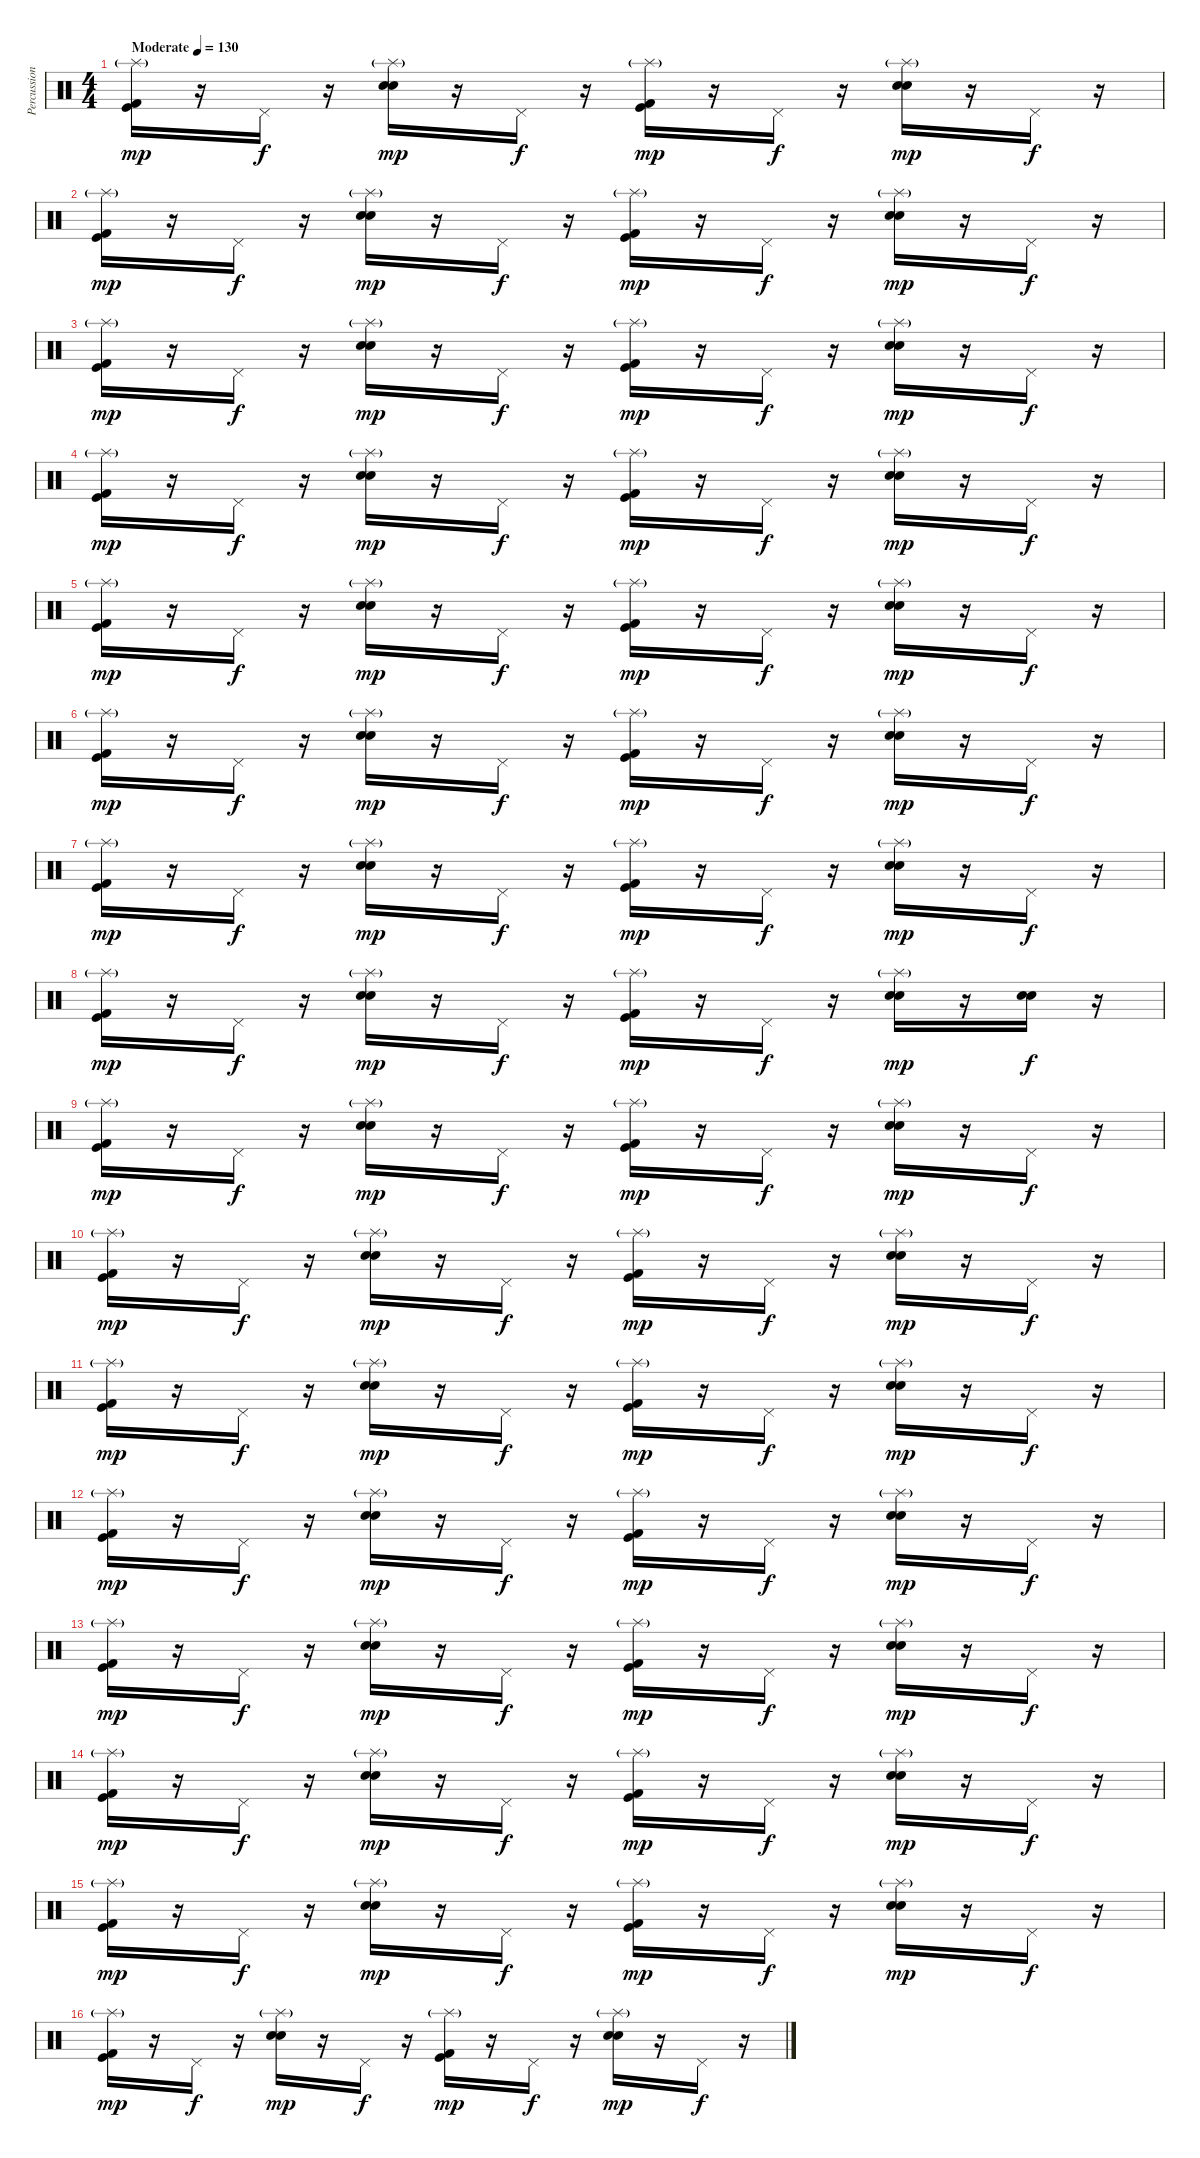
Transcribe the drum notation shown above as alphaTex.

\track ("Percussion" "Percussion") {instrument percussion}
\staff {score}
\articulation defaults
\ts (4 4)
\tempo (130 "Moderate")
\clef neutral
\ks c
("Splash (hit)"{g} "Kick (hit) 2" "Kick (hit)").16{dy mp} r.16 "Pedal Hi-Hat (hit)".16{dy f} r.16 ("Splash (hit)"{g} "Snare (hit) 2" "Electric Snare (hit)").16{dy mp} r.16 "Pedal Hi-Hat (hit)".16{dy f} r.16 ("Splash (hit)"{g} "Kick (hit) 2" "Kick (hit)").16{dy mp} r.16 "Pedal Hi-Hat (hit)".16{dy f} r.16 ("Splash (hit)"{g} "Snare (hit) 2" "Electric Snare (hit)").16{dy mp} r.16 "Pedal Hi-Hat (hit)".16{dy f} r.16 |
("Splash (hit)"{g} "Kick (hit) 2" "Kick (hit)").16{dy mp} r.16 "Pedal Hi-Hat (hit)".16{dy f} r.16 ("Splash (hit)"{g} "Snare (hit) 2" "Electric Snare (hit)").16{dy mp} r.16 "Pedal Hi-Hat (hit)".16{dy f} r.16 ("Splash (hit)"{g} "Kick (hit) 2" "Kick (hit)").16{dy mp} r.16 "Pedal Hi-Hat (hit)".16{dy f} r.16 ("Splash (hit)"{g} "Snare (hit) 2" "Electric Snare (hit)").16{dy mp} r.16 "Pedal Hi-Hat (hit)".16{dy f} r.16 |
("Splash (hit)"{g} "Kick (hit) 2" "Kick (hit)").16{dy mp} r.16 "Pedal Hi-Hat (hit)".16{dy f} r.16 ("Splash (hit)"{g} "Snare (hit) 2" "Electric Snare (hit)").16{dy mp} r.16 "Pedal Hi-Hat (hit)".16{dy f} r.16 ("Splash (hit)"{g} "Kick (hit) 2" "Kick (hit)").16{dy mp} r.16 "Pedal Hi-Hat (hit)".16{dy f} r.16 ("Splash (hit)"{g} "Snare (hit) 2" "Electric Snare (hit)").16{dy mp} r.16 "Pedal Hi-Hat (hit)".16{dy f} r.16 |
("Splash (hit)"{g} "Kick (hit) 2" "Kick (hit)").16{dy mp} r.16 "Pedal Hi-Hat (hit)".16{dy f} r.16 ("Splash (hit)"{g} "Snare (hit) 2" "Electric Snare (hit)").16{dy mp} r.16 "Pedal Hi-Hat (hit)".16{dy f} r.16 ("Splash (hit)"{g} "Kick (hit) 2" "Kick (hit)").16{dy mp} r.16 "Pedal Hi-Hat (hit)".16{dy f} r.16 ("Splash (hit)"{g} "Snare (hit) 2" "Electric Snare (hit)").16{dy mp} r.16 "Pedal Hi-Hat (hit)".16{dy f} r.16 |
("Splash (hit)"{g} "Kick (hit) 2" "Kick (hit)").16{dy mp} r.16 "Pedal Hi-Hat (hit)".16{dy f} r.16 ("Splash (hit)"{g} "Snare (hit) 2" "Electric Snare (hit)").16{dy mp} r.16 "Pedal Hi-Hat (hit)".16{dy f} r.16 ("Splash (hit)"{g} "Kick (hit) 2" "Kick (hit)").16{dy mp} r.16 "Pedal Hi-Hat (hit)".16{dy f} r.16 ("Splash (hit)"{g} "Snare (hit) 2" "Electric Snare (hit)").16{dy mp} r.16 "Pedal Hi-Hat (hit)".16{dy f} r.16 |
("Splash (hit)"{g} "Kick (hit) 2" "Kick (hit)").16{dy mp} r.16 "Pedal Hi-Hat (hit)".16{dy f} r.16 ("Splash (hit)"{g} "Snare (hit) 2" "Electric Snare (hit)").16{dy mp} r.16 "Pedal Hi-Hat (hit)".16{dy f} r.16 ("Splash (hit)"{g} "Kick (hit) 2" "Kick (hit)").16{dy mp} r.16 "Pedal Hi-Hat (hit)".16{dy f} r.16 ("Splash (hit)"{g} "Snare (hit) 2" "Electric Snare (hit)").16{dy mp} r.16 "Pedal Hi-Hat (hit)".16{dy f} r.16 |
("Splash (hit)"{g} "Kick (hit) 2" "Kick (hit)").16{dy mp} r.16 "Pedal Hi-Hat (hit)".16{dy f} r.16 ("Splash (hit)"{g} "Snare (hit) 2" "Electric Snare (hit)").16{dy mp} r.16 "Pedal Hi-Hat (hit)".16{dy f} r.16 ("Splash (hit)"{g} "Kick (hit) 2" "Kick (hit)").16{dy mp} r.16 "Pedal Hi-Hat (hit)".16{dy f} r.16 ("Splash (hit)"{g} "Snare (hit) 2" "Electric Snare (hit)").16{dy mp} r.16 "Pedal Hi-Hat (hit)".16{dy f} r.16 |
("Splash (hit)"{g} "Kick (hit) 2" "Kick (hit)").16{dy mp} r.16 "Pedal Hi-Hat (hit)".16{dy f} r.16 ("Splash (hit)"{g} "Snare (hit) 2" "Electric Snare (hit)").16{dy mp} r.16 "Pedal Hi-Hat (hit)".16{dy f} r.16 ("Splash (hit)"{g} "Kick (hit) 2" "Kick (hit)").16{dy mp} r.16 "Pedal Hi-Hat (hit)".16{dy f} r.16 ("Splash (hit)"{g} "Snare (hit) 2" "Electric Snare (hit)").16{dy mp} r.16 ("Snare (hit) 2" "Electric Snare (hit)").16{dy f} r.16 |
("Splash (hit)"{g} "Kick (hit) 2" "Kick (hit)").16{dy mp} r.16 "Pedal Hi-Hat (hit)".16{dy f} r.16 ("Splash (hit)"{g} "Snare (hit) 2" "Electric Snare (hit)").16{dy mp} r.16 "Pedal Hi-Hat (hit)".16{dy f} r.16 ("Splash (hit)"{g} "Kick (hit) 2" "Kick (hit)").16{dy mp} r.16 "Pedal Hi-Hat (hit)".16{dy f} r.16 ("Splash (hit)"{g} "Snare (hit) 2" "Electric Snare (hit)").16{dy mp} r.16 "Pedal Hi-Hat (hit)".16{dy f} r.16 |
("Splash (hit)"{g} "Kick (hit) 2" "Kick (hit)").16{dy mp} r.16 "Pedal Hi-Hat (hit)".16{dy f} r.16 ("Splash (hit)"{g} "Snare (hit) 2" "Electric Snare (hit)").16{dy mp} r.16 "Pedal Hi-Hat (hit)".16{dy f} r.16 ("Splash (hit)"{g} "Kick (hit) 2" "Kick (hit)").16{dy mp} r.16 "Pedal Hi-Hat (hit)".16{dy f} r.16 ("Splash (hit)"{g} "Snare (hit) 2" "Electric Snare (hit)").16{dy mp} r.16 "Pedal Hi-Hat (hit)".16{dy f} r.16 |
("Splash (hit)"{g} "Kick (hit) 2" "Kick (hit)").16{dy mp} r.16 "Pedal Hi-Hat (hit)".16{dy f} r.16 ("Splash (hit)"{g} "Snare (hit) 2" "Electric Snare (hit)").16{dy mp} r.16 "Pedal Hi-Hat (hit)".16{dy f} r.16 ("Splash (hit)"{g} "Kick (hit) 2" "Kick (hit)").16{dy mp} r.16 "Pedal Hi-Hat (hit)".16{dy f} r.16 ("Splash (hit)"{g} "Snare (hit) 2" "Electric Snare (hit)").16{dy mp} r.16 "Pedal Hi-Hat (hit)".16{dy f} r.16 |
("Splash (hit)"{g} "Kick (hit) 2" "Kick (hit)").16{dy mp} r.16 "Pedal Hi-Hat (hit)".16{dy f} r.16 ("Splash (hit)"{g} "Snare (hit) 2" "Electric Snare (hit)").16{dy mp} r.16 "Pedal Hi-Hat (hit)".16{dy f} r.16 ("Splash (hit)"{g} "Kick (hit) 2" "Kick (hit)").16{dy mp} r.16 "Pedal Hi-Hat (hit)".16{dy f} r.16 ("Splash (hit)"{g} "Snare (hit) 2" "Electric Snare (hit)").16{dy mp} r.16 "Pedal Hi-Hat (hit)".16{dy f} r.16 |
("Splash (hit)"{g} "Kick (hit) 2" "Kick (hit)").16{dy mp} r.16 "Pedal Hi-Hat (hit)".16{dy f} r.16 ("Splash (hit)"{g} "Snare (hit) 2" "Electric Snare (hit)").16{dy mp} r.16 "Pedal Hi-Hat (hit)".16{dy f} r.16 ("Splash (hit)"{g} "Kick (hit) 2" "Kick (hit)").16{dy mp} r.16 "Pedal Hi-Hat (hit)".16{dy f} r.16 ("Splash (hit)"{g} "Snare (hit) 2" "Electric Snare (hit)").16{dy mp} r.16 "Pedal Hi-Hat (hit)".16{dy f} r.16 |
("Splash (hit)"{g} "Kick (hit) 2" "Kick (hit)").16{dy mp} r.16 "Pedal Hi-Hat (hit)".16{dy f} r.16 ("Splash (hit)"{g} "Snare (hit) 2" "Electric Snare (hit)").16{dy mp} r.16 "Pedal Hi-Hat (hit)".16{dy f} r.16 ("Splash (hit)"{g} "Kick (hit) 2" "Kick (hit)").16{dy mp} r.16 "Pedal Hi-Hat (hit)".16{dy f} r.16 ("Splash (hit)"{g} "Snare (hit) 2" "Electric Snare (hit)").16{dy mp} r.16 "Pedal Hi-Hat (hit)".16{dy f} r.16 |
("Splash (hit)"{g} "Kick (hit) 2" "Kick (hit)").16{dy mp} r.16 "Pedal Hi-Hat (hit)".16{dy f} r.16 ("Splash (hit)"{g} "Snare (hit) 2" "Electric Snare (hit)").16{dy mp} r.16 "Pedal Hi-Hat (hit)".16{dy f} r.16 ("Splash (hit)"{g} "Kick (hit) 2" "Kick (hit)").16{dy mp} r.16 "Pedal Hi-Hat (hit)".16{dy f} r.16 ("Splash (hit)"{g} "Snare (hit) 2" "Electric Snare (hit)").16{dy mp} r.16 "Pedal Hi-Hat (hit)".16{dy f} r.16 |
("Splash (hit)"{g} "Kick (hit) 2" "Kick (hit)").16{dy mp} r.16 "Pedal Hi-Hat (hit)".16{dy f} r.16 ("Splash (hit)"{g} "Snare (hit) 2" "Electric Snare (hit)").16{dy mp} r.16 "Pedal Hi-Hat (hit)".16{dy f} r.16 ("Splash (hit)"{g} "Kick (hit) 2" "Kick (hit)").16{dy mp} r.16 "Pedal Hi-Hat (hit)".16{dy f} r.16 ("Splash (hit)"{g} "Snare (hit) 2" "Electric Snare (hit)").16{dy mp} r.16 "Pedal Hi-Hat (hit)".16{dy f} r.16
